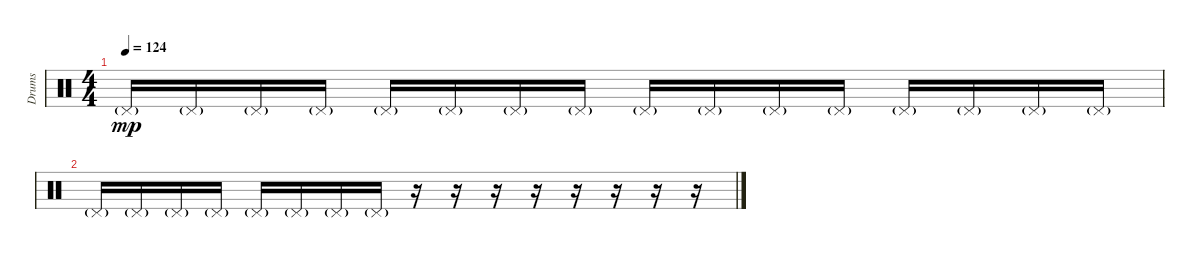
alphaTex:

\track ("Drums" "Drums") {instrument percussion}
\staff {score}
\articulation defaults
\ts (4 4)
\tempo 124
\clef neutral
\ks c "Pedal Hi-Hat (hit)"{g}.16{dy mp} "Pedal Hi-Hat (hit)"{g}.16 "Pedal Hi-Hat (hit)"{g}.16 "Pedal Hi-Hat (hit)"{g}.16 "Pedal Hi-Hat (hit)"{g}.16 "Pedal Hi-Hat (hit)"{g}.16 "Pedal Hi-Hat (hit)"{g}.16 "Pedal Hi-Hat (hit)"{g}.16 "Pedal Hi-Hat (hit)"{g}.16 "Pedal Hi-Hat (hit)"{g}.16 "Pedal Hi-Hat (hit)"{g}.16 "Pedal Hi-Hat (hit)"{g}.16 "Pedal Hi-Hat (hit)"{g}.16 "Pedal Hi-Hat (hit)"{g}.16 "Pedal Hi-Hat (hit)"{g}.16 "Pedal Hi-Hat (hit)"{g}.16
|
"Pedal Hi-Hat (hit)"{g}.16 "Pedal Hi-Hat (hit)"{g}.16 "Pedal Hi-Hat (hit)"{g}.16 "Pedal Hi-Hat (hit)"{g}.16 "Pedal Hi-Hat (hit)"{g}.16 "Pedal Hi-Hat (hit)"{g}.16 "Pedal Hi-Hat (hit)"{g}.16 "Pedal Hi-Hat (hit)"{g}.16 r.16 r.16 r.16 r.16 r.16 r.16 r.16 r.16
